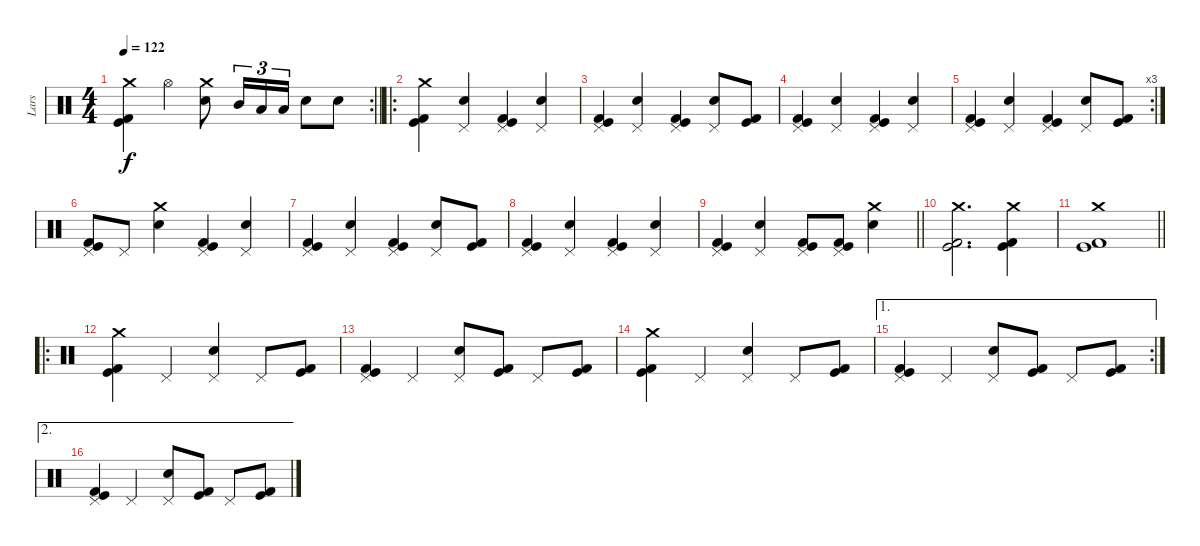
\track ("Lars" "Lars") {instrument percussion}
\staff {score}
\articulation defaults
\rc 2
\ts (4 4)
\tempo 122
\clef neutral
\barLineRight lightlight
\ks aminor
("Crash medium (hit)" "Kick (hit)" "Kick (hit) 2").4{dy f} "Hi-Hat (open)".4 ("Crash medium (hit)" "Electric Snare (hit)").8 "Mid Tom (hit)".16{tu (3 2)} "Low Tom (hit)".16{tu (3 2)} "Low Tom (hit)".16{tu (3 2)} "Electric Snare (hit)".8 "Electric Snare (hit)".8 |
\ro
("Crash medium (hit)" "Kick (hit)" "Kick (hit) 2").4 ("Pedal Hi-Hat (hit)" "Electric Snare (hit)").4 ("Pedal Hi-Hat (hit)" "Kick (hit)" "Kick (hit) 2").4 ("Pedal Hi-Hat (hit)" "Electric Snare (hit)").4 |
("Pedal Hi-Hat (hit)" "Kick (hit)" "Kick (hit) 2").4 ("Pedal Hi-Hat (hit)" "Electric Snare (hit)").4 ("Pedal Hi-Hat (hit)" "Kick (hit)" "Kick (hit) 2").4 ("Pedal Hi-Hat (hit)" "Electric Snare (hit)").8 ("Kick (hit)" "Kick (hit) 2").8 |
("Pedal Hi-Hat (hit)" "Kick (hit)" "Kick (hit) 2").4 ("Pedal Hi-Hat (hit)" "Electric Snare (hit)").4 ("Pedal Hi-Hat (hit)" "Kick (hit)" "Kick (hit) 2").4 ("Pedal Hi-Hat (hit)" "Electric Snare (hit)").4 |
\rc 3
("Pedal Hi-Hat (hit)" "Kick (hit)" "Kick (hit) 2").4 ("Pedal Hi-Hat (hit)" "Electric Snare (hit)").4 ("Pedal Hi-Hat (hit)" "Kick (hit)" "Kick (hit) 2").4 ("Pedal Hi-Hat (hit)" "Electric Snare (hit)").8 ("Kick (hit)" "Kick (hit) 2").8 |
("Pedal Hi-Hat (hit)" "Kick (hit)" "Kick (hit) 2").8 "Pedal Hi-Hat (hit)".8 ("Crash medium (hit)" "Electric Snare (hit)").4 ("Pedal Hi-Hat (hit)" "Kick (hit)" "Kick (hit) 2").4 ("Pedal Hi-Hat (hit)" "Electric Snare (hit)").4 |
("Pedal Hi-Hat (hit)" "Kick (hit)" "Kick (hit) 2").4 ("Pedal Hi-Hat (hit)" "Electric Snare (hit)").4 ("Pedal Hi-Hat (hit)" "Kick (hit)" "Kick (hit) 2").4 ("Pedal Hi-Hat (hit)" "Electric Snare (hit)").8 ("Kick (hit)" "Kick (hit) 2").8 |
("Pedal Hi-Hat (hit)" "Kick (hit)" "Kick (hit) 2").4 ("Pedal Hi-Hat (hit)" "Electric Snare (hit)").4 ("Pedal Hi-Hat (hit)" "Kick (hit)" "Kick (hit) 2").4 ("Pedal Hi-Hat (hit)" "Electric Snare (hit)").4 |
\barLineRight lightlight
("Pedal Hi-Hat (hit)" "Kick (hit)" "Kick (hit) 2").4 ("Pedal Hi-Hat (hit)" "Electric Snare (hit)").4 ("Pedal Hi-Hat (hit)" "Kick (hit)" "Kick (hit) 2").8 ("Pedal Hi-Hat (hit)" "Kick (hit)" "Kick (hit) 2").8 ("Crash medium (hit)" "Electric Snare (hit)").4 |
("Crash medium (hit)" "Kick (hit)" "Kick (hit) 2").2{d} ("Crash medium (hit)" "Kick (hit)" "Kick (hit) 2").4 |
\barLineRight lightlight
("Crash medium (hit)" "Kick (hit)" "Kick (hit) 2").1 |
\ro
("Crash medium (hit)" "Kick (hit)" "Kick (hit) 2").4 "Pedal Hi-Hat (hit)".4 ("Pedal Hi-Hat (hit)" "Electric Snare (hit)").4 "Pedal Hi-Hat (hit)".8 ("Kick (hit)" "Kick (hit) 2").8 |
("Pedal Hi-Hat (hit)" "Kick (hit)" "Kick (hit) 2").4 "Pedal Hi-Hat (hit)".4 ("Pedal Hi-Hat (hit)" "Electric Snare (hit)").8 ("Kick (hit)" "Kick (hit) 2").8 "Pedal Hi-Hat (hit)".8 ("Kick (hit)" "Kick (hit) 2").8 |
("Crash medium (hit)" "Kick (hit)" "Kick (hit) 2").4 "Pedal Hi-Hat (hit)".4 ("Pedal Hi-Hat (hit)" "Electric Snare (hit)").4 "Pedal Hi-Hat (hit)".8 ("Kick (hit)" "Kick (hit) 2").8 |
\ae 1
\rc 2
("Pedal Hi-Hat (hit)" "Kick (hit)" "Kick (hit) 2").4 "Pedal Hi-Hat (hit)".4 ("Pedal Hi-Hat (hit)" "Electric Snare (hit)").8 ("Kick (hit)" "Kick (hit) 2").8 "Pedal Hi-Hat (hit)".8 ("Kick (hit)" "Kick (hit) 2").8 |
\ae 2
("Pedal Hi-Hat (hit)" "Kick (hit)" "Kick (hit) 2").4 "Pedal Hi-Hat (hit)".4 ("Pedal Hi-Hat (hit)" "Electric Snare (hit)").8 ("Kick (hit)" "Kick (hit) 2").8 "Pedal Hi-Hat (hit)".8 ("Kick (hit)" "Kick (hit) 2").8
